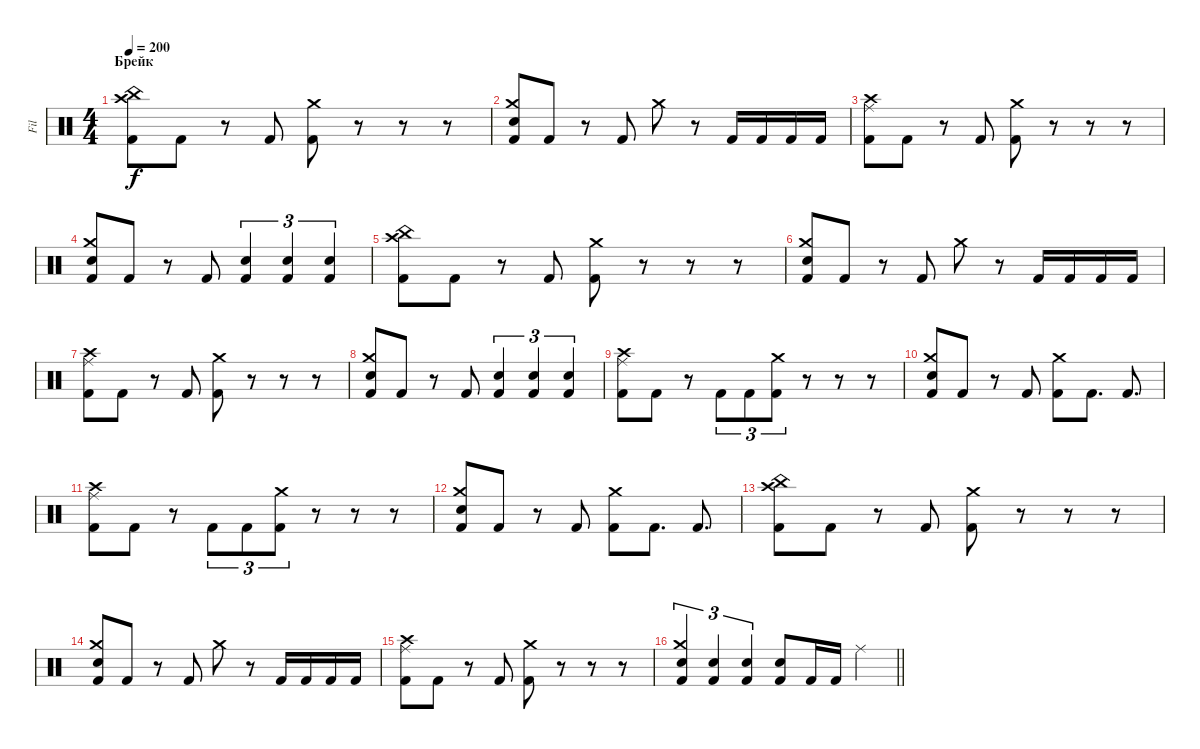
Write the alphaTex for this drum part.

\track ("Fil" "Fil") {instrument percussion}
\staff {score}
\articulation defaults
\ts (4 4)
\section ("" "Брейк")
\tempo 200
\clef neutral
\ks c
("Crash high (hit)" "China (hit)" "Kick (hit) 2").8{dy f} "Kick (hit) 2".8 r.8 "Kick (hit) 2".8 ("Crash medium (hit)" "Kick (hit) 2").8 r.8 r.8 r.8 |
("Crash medium (hit)" "Electric Snare (hit)" "Kick (hit) 2").8 "Kick (hit) 2".8 r.8 "Kick (hit) 2".8 "Crash medium (hit)".8 r.8 "Kick (hit) 2".16 "Kick (hit) 2".16 "Kick (hit) 2".16 "Kick (hit) 2".16 |
("Crash high (hit)" "Ride (middle)" "Kick (hit) 2").8 "Kick (hit) 2".8 r.8 "Kick (hit) 2".8 ("Crash medium (hit)" "Kick (hit) 2").8 r.8 r.8 r.8 |
("Crash medium (hit)" "Electric Snare (hit)" "Kick (hit) 2").8 "Kick (hit) 2".8 r.8 "Kick (hit) 2".8 ("Electric Snare (hit)" "Kick (hit) 2").4{tu (3 2)} ("Electric Snare (hit)" "Kick (hit) 2").4{tu (3 2)} ("Electric Snare (hit)" "Kick (hit) 2").4{tu (3 2)} |
("Crash high (hit)" "China (hit)" "Kick (hit) 2").8 "Kick (hit) 2".8 r.8 "Kick (hit) 2".8 ("Crash medium (hit)" "Kick (hit) 2").8 r.8 r.8 r.8 |
("Crash medium (hit)" "Electric Snare (hit)" "Kick (hit) 2").8 "Kick (hit) 2".8 r.8 "Kick (hit) 2".8 "Crash medium (hit)".8 r.8 "Kick (hit) 2".16 "Kick (hit) 2".16 "Kick (hit) 2".16 "Kick (hit) 2".16 |
("Crash high (hit)" "Ride (middle)" "Kick (hit) 2").8 "Kick (hit) 2".8 r.8 "Kick (hit) 2".8 ("Crash medium (hit)" "Kick (hit) 2").8 r.8 r.8 r.8 |
("Crash medium (hit)" "Electric Snare (hit)" "Kick (hit) 2").8 "Kick (hit) 2".8 r.8 "Kick (hit) 2".8 ("Electric Snare (hit)" "Kick (hit) 2").4{tu (3 2)} ("Electric Snare (hit)" "Kick (hit) 2").4{tu (3 2)} ("Electric Snare (hit)" "Kick (hit) 2").4{tu (3 2)} |
("Crash high (hit)" "Ride (middle)" "Kick (hit) 2").8 "Kick (hit) 2".8 r.8 "Kick (hit) 2".8{tu (3 2)} "Kick (hit) 2".8{tu (3 2)} ("Crash medium (hit)" "Kick (hit) 2").8{tu (3 2)} r.8 r.8 r.8 |
("Crash medium (hit)" "Electric Snare (hit)" "Kick (hit) 2").8 "Kick (hit) 2".8 r.8 "Kick (hit) 2".8 ("Crash medium (hit)" "Kick (hit) 2").8 "Kick (hit) 2".8{d} "Kick (hit) 2".8{d} |
("Crash high (hit)" "Ride (middle)" "Kick (hit) 2").8 "Kick (hit) 2".8 r.8 "Kick (hit) 2".8{tu (3 2)} "Kick (hit) 2".8{tu (3 2)} ("Crash medium (hit)" "Kick (hit) 2").8{tu (3 2)} r.8 r.8 r.8 |
("Crash medium (hit)" "Electric Snare (hit)" "Kick (hit) 2").8 "Kick (hit) 2".8 r.8 "Kick (hit) 2".8 ("Crash medium (hit)" "Kick (hit) 2").8 "Kick (hit) 2".8{d} "Kick (hit) 2".8{d} |
("Crash high (hit)" "China (hit)" "Kick (hit) 2").8 "Kick (hit) 2".8 r.8 "Kick (hit) 2".8 ("Crash medium (hit)" "Kick (hit) 2").8 r.8 r.8 r.8 |
("Crash medium (hit)" "Electric Snare (hit)" "Kick (hit) 2").8 "Kick (hit) 2".8 r.8 "Kick (hit) 2".8 "Crash medium (hit)".8 r.8 "Kick (hit) 2".16 "Kick (hit) 2".16 "Kick (hit) 2".16 "Kick (hit) 2".16 |
("Crash high (hit)" "Ride (middle)" "Kick (hit) 2").8 "Kick (hit) 2".8 r.8 "Kick (hit) 2".8 ("Crash medium (hit)" "Kick (hit) 2").8 r.8 r.8 r.8 |
\barLineRight lightlight
("Crash medium (hit)" "Electric Snare (hit)" "Kick (hit) 2").4{tu (3 2)} ("Snare (hit) 2" "Kick (hit) 2").4{tu (3 2)} ("Snare (hit) 2" "Kick (hit) 2").4{tu (3 2)} ("Snare (hit) 2" "Kick (hit) 2").8 "Kick (hit) 2".16 "Kick (hit) 2".16 "Ride (middle)".4
